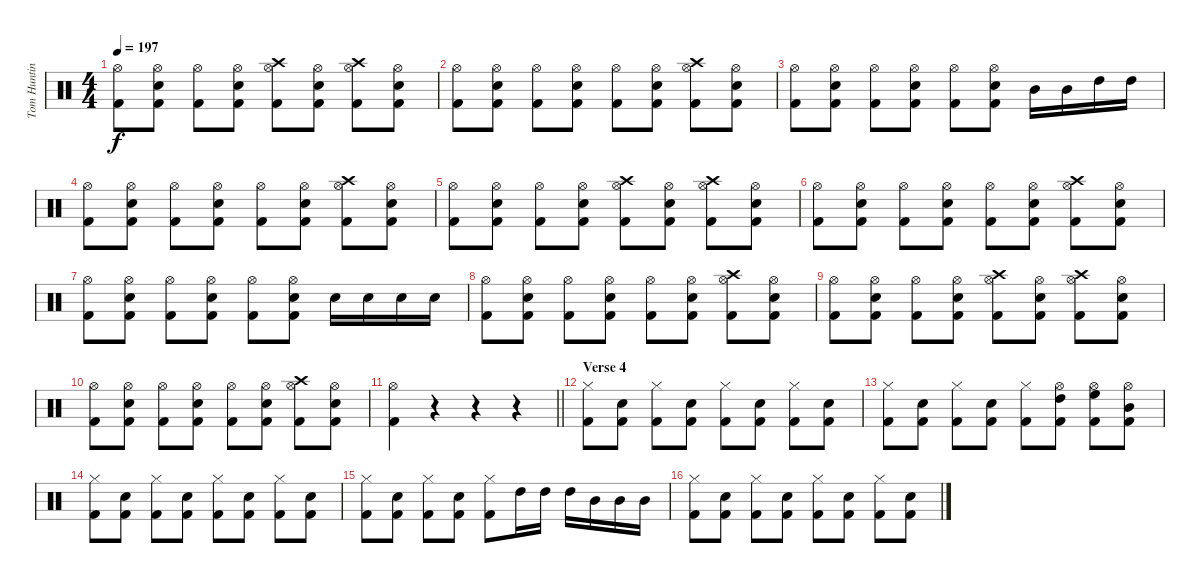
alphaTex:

\track ("Tom Hunting" "Tom Huntin") {instrument percussion}
\staff {score}
\articulation defaults
\ts (4 4)
\tempo 197
\clef neutral
\ks c
("Hi-Hat (open)" "Kick (hit) 2").8{dy f} ("Hi-Hat (open)" "Snare (hit) 2" "Kick (hit) 2").8 ("Hi-Hat (open)" "Kick (hit) 2").8 ("Hi-Hat (open)" "Snare (hit) 2" "Kick (hit) 2").8 ("Crash high (hit)" "Hi-Hat (open)" "Kick (hit) 2").8 ("Hi-Hat (open)" "Snare (hit) 2" "Kick (hit) 2").8 ("Crash high (hit)" "Hi-Hat (open)" "Kick (hit) 2").8 ("Hi-Hat (open)" "Snare (hit) 2" "Kick (hit) 2").8 |
("Hi-Hat (open)" "Kick (hit) 2").8 ("Hi-Hat (open)" "Snare (hit) 2" "Kick (hit) 2").8 ("Hi-Hat (open)" "Kick (hit) 2").8 ("Hi-Hat (open)" "Snare (hit) 2" "Kick (hit) 2").8 ("Hi-Hat (open)" "Kick (hit) 2").8 ("Hi-Hat (open)" "Snare (hit) 2" "Kick (hit) 2").8 ("Crash high (hit)" "Hi-Hat (open)" "Kick (hit) 2").8 ("Hi-Hat (open)" "Snare (hit) 2" "Kick (hit) 2").8 |
("Hi-Hat (open)" "Kick (hit) 2").8 ("Hi-Hat (open)" "Snare (hit) 2" "Kick (hit) 2").8 ("Hi-Hat (open)" "Kick (hit) 2").8 ("Hi-Hat (open)" "Snare (hit) 2" "Kick (hit) 2").8 ("Hi-Hat (open)" "Kick (hit) 2").8 ("Hi-Hat (open)" "Snare (hit) 2" "Kick (hit) 2").8 "Mid Tom (hit)".16 "Mid Tom (hit)".16 "High Tom (hit)".16 "High Tom (hit)".16 |
("Hi-Hat (open)" "Kick (hit) 2").8 ("Hi-Hat (open)" "Snare (hit) 2" "Kick (hit) 2").8 ("Hi-Hat (open)" "Kick (hit) 2").8 ("Hi-Hat (open)" "Snare (hit) 2" "Kick (hit) 2").8 ("Hi-Hat (open)" "Kick (hit) 2").8 ("Hi-Hat (open)" "Snare (hit) 2" "Kick (hit) 2").8 ("Crash high (hit)" "Hi-Hat (open)" "Kick (hit) 2").8 ("Hi-Hat (open)" "Snare (hit) 2" "Kick (hit) 2").8 |
("Hi-Hat (open)" "Kick (hit) 2").8 ("Hi-Hat (open)" "Snare (hit) 2" "Kick (hit) 2").8 ("Hi-Hat (open)" "Kick (hit) 2").8 ("Hi-Hat (open)" "Snare (hit) 2" "Kick (hit) 2").8 ("Crash high (hit)" "Hi-Hat (open)" "Kick (hit) 2").8 ("Hi-Hat (open)" "Snare (hit) 2" "Kick (hit) 2").8 ("Crash high (hit)" "Hi-Hat (open)" "Kick (hit) 2").8 ("Hi-Hat (open)" "Snare (hit) 2" "Kick (hit) 2").8 |
("Hi-Hat (open)" "Kick (hit) 2").8 ("Hi-Hat (open)" "Snare (hit) 2" "Kick (hit) 2").8 ("Hi-Hat (open)" "Kick (hit) 2").8 ("Hi-Hat (open)" "Snare (hit) 2" "Kick (hit) 2").8 ("Hi-Hat (open)" "Kick (hit) 2").8 ("Hi-Hat (open)" "Snare (hit) 2" "Kick (hit) 2").8 ("Crash high (hit)" "Hi-Hat (open)" "Kick (hit) 2").8 ("Hi-Hat (open)" "Snare (hit) 2" "Kick (hit) 2").8 |
("Hi-Hat (open)" "Kick (hit) 2").8 ("Hi-Hat (open)" "Snare (hit) 2" "Kick (hit) 2").8 ("Hi-Hat (open)" "Kick (hit) 2").8 ("Hi-Hat (open)" "Snare (hit) 2" "Kick (hit) 2").8 ("Hi-Hat (open)" "Kick (hit) 2").8 ("Hi-Hat (open)" "Snare (hit) 2" "Kick (hit) 2").8 "Snare (hit) 2".16 "Snare (hit) 2".16 "Snare (hit) 2".16 "Snare (hit) 2".16 |
("Hi-Hat (open)" "Kick (hit) 2").8 ("Hi-Hat (open)" "Snare (hit) 2" "Kick (hit) 2").8 ("Hi-Hat (open)" "Kick (hit) 2").8 ("Hi-Hat (open)" "Snare (hit) 2" "Kick (hit) 2").8 ("Hi-Hat (open)" "Kick (hit) 2").8 ("Hi-Hat (open)" "Snare (hit) 2" "Kick (hit) 2").8 ("Crash high (hit)" "Hi-Hat (open)" "Kick (hit) 2").8 ("Hi-Hat (open)" "Snare (hit) 2" "Kick (hit) 2").8 |
("Hi-Hat (open)" "Kick (hit) 2").8 ("Hi-Hat (open)" "Snare (hit) 2" "Kick (hit) 2").8 ("Hi-Hat (open)" "Kick (hit) 2").8 ("Hi-Hat (open)" "Snare (hit) 2" "Kick (hit) 2").8 ("Crash high (hit)" "Hi-Hat (open)" "Kick (hit) 2").8 ("Hi-Hat (open)" "Snare (hit) 2" "Kick (hit) 2").8 ("Crash high (hit)" "Hi-Hat (open)" "Kick (hit) 2").8 ("Hi-Hat (open)" "Snare (hit) 2" "Kick (hit) 2").8 |
("Hi-Hat (open)" "Kick (hit) 2").8 ("Hi-Hat (open)" "Snare (hit) 2" "Kick (hit) 2").8 ("Hi-Hat (open)" "Kick (hit) 2").8 ("Hi-Hat (open)" "Snare (hit) 2" "Kick (hit) 2").8 ("Hi-Hat (open)" "Kick (hit) 2").8 ("Hi-Hat (open)" "Snare (hit) 2" "Kick (hit) 2").8 ("Crash high (hit)" "Hi-Hat (open)" "Kick (hit) 2").8 ("Hi-Hat (open)" "Snare (hit) 2" "Kick (hit) 2").8 |
\barLineRight lightlight
("Hi-Hat (open)" "Kick (hit) 2").4 r.4 r.4 r.4 |
\section ("" "Verse 4")
("Hi-Hat (closed)" "Kick (hit) 2").8 ("Snare (hit) 2" "Kick (hit) 2").8 ("Hi-Hat (closed)" "Kick (hit) 2").8 ("Snare (hit) 2" "Kick (hit) 2").8 ("Hi-Hat (closed)" "Kick (hit) 2").8 ("Snare (hit) 2" "Kick (hit) 2").8 ("Hi-Hat (closed)" "Kick (hit) 2").8 ("Snare (hit) 2" "Kick (hit) 2").8 |
("Hi-Hat (closed)" "Kick (hit) 2").8 ("Snare (hit) 2" "Kick (hit) 2").8 ("Hi-Hat (closed)" "Kick (hit) 2").8 ("Snare (hit) 2" "Kick (hit) 2").8 ("Hi-Hat (closed)" "Kick (hit) 2").8 ("Hi-Hat (open)" "High Tom (hit)" "Kick (hit) 2").8 ("Hi-Hat (open)" "High Floor Tom (hit)" "Kick (hit) 2").8 ("Hi-Hat (open)" "Mid Tom (hit)" "Kick (hit) 2").8 |
("Hi-Hat (closed)" "Kick (hit) 2").8 ("Snare (hit) 2" "Kick (hit) 2").8 ("Hi-Hat (closed)" "Kick (hit) 2").8 ("Snare (hit) 2" "Kick (hit) 2").8 ("Hi-Hat (closed)" "Kick (hit) 2").8 ("Snare (hit) 2" "Kick (hit) 2").8 ("Hi-Hat (closed)" "Kick (hit) 2").8 ("Snare (hit) 2" "Kick (hit) 2").8 |
("Hi-Hat (closed)" "Kick (hit) 2").8 ("Snare (hit) 2" "Kick (hit) 2").8 ("Hi-Hat (closed)" "Kick (hit) 2").8 ("Snare (hit) 2" "Kick (hit) 2").8 ("Hi-Hat (closed)" "Kick (hit) 2").8 "High Tom (hit)".16 "High Tom (hit)".16 "High Tom (hit)".16 "Mid Tom (hit)".16 "Mid Tom (hit)".16 "Mid Tom (hit)".16 |
("Hi-Hat (closed)" "Kick (hit) 2").8 ("Snare (hit) 2" "Kick (hit) 2").8 ("Hi-Hat (closed)" "Kick (hit) 2").8 ("Snare (hit) 2" "Kick (hit) 2").8 ("Hi-Hat (closed)" "Kick (hit) 2").8 ("Snare (hit) 2" "Kick (hit) 2").8 ("Hi-Hat (closed)" "Kick (hit) 2").8 ("Snare (hit) 2" "Kick (hit) 2").8
